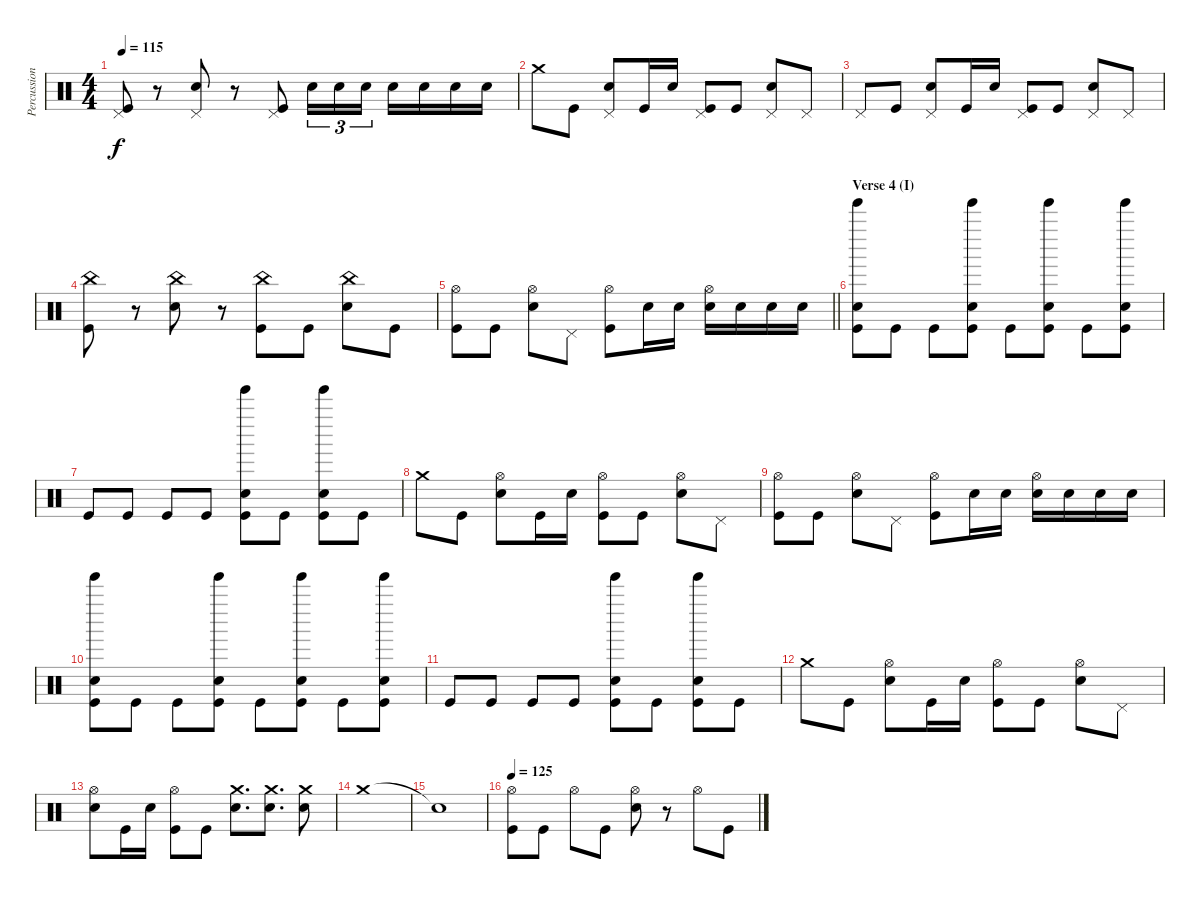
\track ("Percussion" "Percussion") {instrument percussion}
\staff {score}
\articulation defaults
\ts (4 4)
\tempo 115
\clef neutral
\ks c
("Pedal Hi-Hat (hit)" "Kick (hit)").8{dy f} r.8 ("Pedal Hi-Hat (hit)" "Snare (hit) 2").8 r.8 ("Pedal Hi-Hat (hit)" "Kick (hit)").8 "Snare (hit) 2".16{tu (3 2)} "Snare (hit) 2".16{tu (3 2)} "Snare (hit) 2".16{tu (3 2)} "Snare (hit) 2".16 "Snare (hit) 2".16 "Snare (hit) 2".16 "Snare (hit) 2".16 |
"Crash medium (hit)".8 "Kick (hit)".8 ("Pedal Hi-Hat (hit)" "Snare (hit) 2").8 "Kick (hit)".16 "Snare (hit) 2".16 ("Pedal Hi-Hat (hit)" "Kick (hit)").8 "Kick (hit)".8 ("Pedal Hi-Hat (hit)" "Snare (hit) 2").8 "Pedal Hi-Hat (hit)".8 |
"Pedal Hi-Hat (hit)".8 "Kick (hit)".8 ("Pedal Hi-Hat (hit)" "Snare (hit) 2").8 "Kick (hit)".16 "Snare (hit) 2".16 ("Pedal Hi-Hat (hit)" "Kick (hit)").8 "Kick (hit)".8 ("Pedal Hi-Hat (hit)" "Snare (hit) 2").8 "Pedal Hi-Hat (hit)".8 |
("China (hit)" "Kick (hit)").8 r.8 ("China (hit)" "Snare (hit) 2").8 r.8 ("China (hit)" "Kick (hit)").8 "Kick (hit)".8 ("China (hit)" "Snare (hit) 2").8 "Kick (hit)".8 |
\barLineRight lightlight
("Hi-Hat (open)" "Kick (hit)").8 "Kick (hit)".8 ("Hi-Hat (open)" "Snare (hit) 2").8 "Pedal Hi-Hat (hit)".8 ("Hi-Hat (open)" "Kick (hit)").8 "Snare (hit) 2".16 "Snare (hit) 2".16 ("Hi-Hat (open)" "Snare (hit) 2").16 "Snare (hit) 2".16 "Snare (hit) 2".16 "Snare (hit) 2".16 |
\section ("" "Verse 4 (I)")
("Tinkle Bell (hit)" "Snare (hit) 2" "Kick (hit)").8 "Kick (hit)".8 "Kick (hit)".8 ("Tinkle Bell (hit)" "Snare (hit) 2" "Kick (hit)").8 "Kick (hit)".8 ("Tinkle Bell (hit)" "Snare (hit) 2" "Kick (hit)").8 "Kick (hit)".8 ("Tinkle Bell (hit)" "Snare (hit) 2" "Kick (hit)").8 |
"Kick (hit)".8 "Kick (hit)".8 "Kick (hit)".8 "Kick (hit)".8 ("Tinkle Bell (hit)" "Snare (hit) 2" "Kick (hit)").8 "Kick (hit)".8 ("Tinkle Bell (hit)" "Snare (hit) 2" "Kick (hit)").8 "Kick (hit)".8 |
"Crash medium (hit)".8 "Kick (hit)".8 ("Hi-Hat (open)" "Snare (hit) 2").8 "Kick (hit)".16 "Snare (hit) 2".16 ("Hi-Hat (open)" "Kick (hit)").8 "Kick (hit)".8 ("Hi-Hat (open)" "Snare (hit) 2").8 "Pedal Hi-Hat (hit)".8 |
("Hi-Hat (open)" "Kick (hit)").8 "Kick (hit)".8 ("Hi-Hat (open)" "Snare (hit) 2").8 "Pedal Hi-Hat (hit)".8 ("Hi-Hat (open)" "Kick (hit)").8 "Snare (hit) 2".16 "Snare (hit) 2".16 ("Hi-Hat (open)" "Snare (hit) 2").16 "Snare (hit) 2".16 "Snare (hit) 2".16 "Snare (hit) 2".16 |
("Tinkle Bell (hit)" "Snare (hit) 2" "Kick (hit)").8 "Kick (hit)".8 "Kick (hit)".8 ("Tinkle Bell (hit)" "Snare (hit) 2" "Kick (hit)").8 "Kick (hit)".8 ("Tinkle Bell (hit)" "Snare (hit) 2" "Kick (hit)").8 "Kick (hit)".8 ("Tinkle Bell (hit)" "Snare (hit) 2" "Kick (hit)").8 |
"Kick (hit)".8 "Kick (hit)".8 "Kick (hit)".8 "Kick (hit)".8 ("Tinkle Bell (hit)" "Snare (hit) 2" "Kick (hit)").8 "Kick (hit)".8 ("Tinkle Bell (hit)" "Snare (hit) 2" "Kick (hit)").8 "Kick (hit)".8 |
"Crash medium (hit)".8 "Kick (hit)".8 ("Hi-Hat (open)" "Snare (hit) 2").8 "Kick (hit)".16 "Snare (hit) 2".16 ("Hi-Hat (open)" "Kick (hit)").8 "Kick (hit)".8 ("Hi-Hat (open)" "Snare (hit) 2").8 "Pedal Hi-Hat (hit)".8 |
("Hi-Hat (open)" "Snare (hit) 2").8 "Kick (hit)".16 "Snare (hit) 2".16 ("Hi-Hat (open)" "Kick (hit)").8 "Kick (hit)".8 ("Crash medium (hit)" "Snare (hit) 2").8{d} ("Crash medium (hit)" "Snare (hit) 2").8{d} ("Crash medium (hit)" "Snare (hit) 2").8 |
"Crash medium (hit)".1 |
"Snare (hit)"{t}.1 |
\tempo 125
("Hi-Hat (open)" "Kick (hit)").8 "Kick (hit)".8 "Hi-Hat (open)".8 "Kick (hit)".8 ("Hi-Hat (open)" "Snare (hit) 2").8 r.8 "Hi-Hat (open)".8 "Kick (hit)".8
